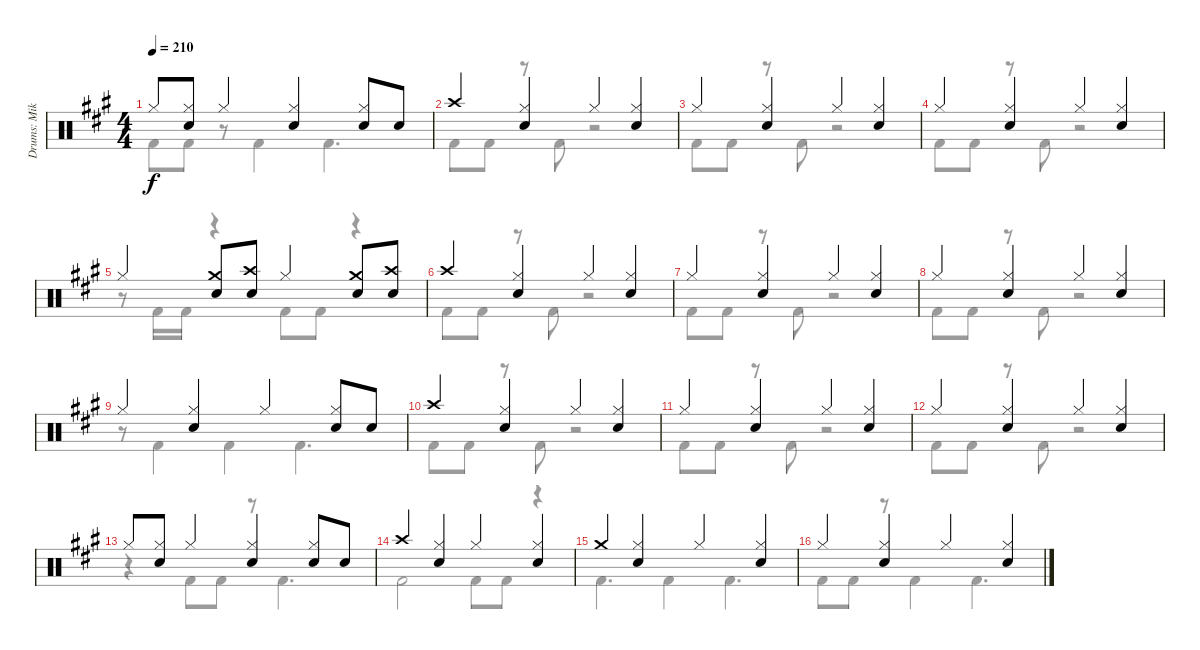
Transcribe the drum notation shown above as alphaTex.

\track ("Drums: Mikkey" "Drums: Mik") {instrument percussion}
\staff {score}
\articulation defaults
\voice
\ts (4 4)
\tempo 210
\clef neutral
\ks a "Hi-Hat (closed)".8{dy f}
("Hi-Hat (closed)" "Snare (hit) 2").8 "Hi-Hat (closed)".4 ("Hi-Hat (closed)" "Snare (hit) 2").4 ("Hi-Hat (closed)" "Snare (hit) 2").8 "Snare (hit) 2".8 |
"Crash high (hit)".4 ("Hi-Hat (closed)" "Snare (hit) 2").4 "Hi-Hat (closed)".4 ("Hi-Hat (closed)" "Snare (hit) 2").4 |
"Hi-Hat (closed)".4 ("Hi-Hat (closed)" "Snare (hit) 2").4 "Hi-Hat (closed)".4 ("Hi-Hat (closed)" "Snare (hit) 2").4 |
"Hi-Hat (closed)".4 ("Hi-Hat (closed)" "Snare (hit) 2").4 "Hi-Hat (closed)".4 ("Hi-Hat (closed)" "Snare (hit) 2").4 |
"Hi-Hat (closed)".4 ("Crash medium (hit)" "Snare (hit) 2").8 ("Crash high (hit)" "Snare (hit) 2").8 "Hi-Hat (closed)".4 ("Crash medium (hit)" "Snare (hit) 2").8 ("Crash high (hit)" "Snare (hit) 2").8 |
"Crash high (hit)".4 ("Hi-Hat (closed)" "Snare (hit) 2").4 "Hi-Hat (closed)".4 ("Hi-Hat (closed)" "Snare (hit) 2").4 |
"Hi-Hat (closed)".4 ("Hi-Hat (closed)" "Snare (hit) 2").4 "Hi-Hat (closed)".4 ("Hi-Hat (closed)" "Snare (hit) 2").4 |
"Hi-Hat (closed)".4 ("Hi-Hat (closed)" "Snare (hit) 2").4 "Hi-Hat (closed)".4 ("Hi-Hat (closed)" "Snare (hit) 2").4 |
"Hi-Hat (closed)".4 ("Hi-Hat (closed)" "Snare (hit) 2").4 "Hi-Hat (closed)".4 ("Hi-Hat (closed)" "Snare (hit) 2").8 "Snare (hit) 2".8 |
"Crash high (hit)".4 ("Hi-Hat (closed)" "Snare (hit) 2").4 "Hi-Hat (closed)".4 ("Hi-Hat (closed)" "Snare (hit) 2").4 |
"Hi-Hat (closed)".4 ("Hi-Hat (closed)" "Snare (hit) 2").4 "Hi-Hat (closed)".4 ("Hi-Hat (closed)" "Snare (hit) 2").4 |
"Hi-Hat (closed)".4 ("Hi-Hat (closed)" "Snare (hit) 2").4 "Hi-Hat (closed)".4 ("Hi-Hat (closed)" "Snare (hit) 2").4 |
"Hi-Hat (closed)".8 ("Hi-Hat (closed)" "Snare (hit) 2").8 "Hi-Hat (closed)".4 ("Hi-Hat (closed)" "Snare (hit) 2").4 ("Hi-Hat (closed)" "Snare (hit) 2").8 "Snare (hit) 2".8 |
"Crash high (hit)".4 ("Hi-Hat (closed)" "Snare (hit) 2").4 "Hi-Hat (closed)".4 ("Hi-Hat (closed)" "Snare (hit) 2").4 |
"Crash medium (hit)".4 ("Hi-Hat (closed)" "Snare (hit) 2").4 "Hi-Hat (closed)".4 ("Hi-Hat (closed)" "Snare (hit) 2").4 |
"Hi-Hat (closed)".4 ("Hi-Hat (closed)" "Snare (hit) 2").4 "Hi-Hat (closed)".4 ("Hi-Hat (closed)" "Snare (hit) 2").4
\voice
\clef neutral
\ottava regular
\simile none
\ks a "Kick (hit) 2".8{dy f} "Kick (hit) 2".8
r.8 "Kick (hit) 2".4 "Kick (hit) 2".4{d} |
"Kick (hit) 2".8 "Kick (hit) 2".8 r.8 "Kick (hit) 2".8{beam merge} r.2 |
"Kick (hit) 2".8 "Kick (hit) 2".8 r.8 "Kick (hit) 2".8{beam merge} r.2 |
"Kick (hit) 2".8 "Kick (hit) 2".8 r.8 "Kick (hit) 2".8{beam merge} r.2 |
r.8 "Kick (hit) 2".16 "Kick (hit) 2".16 r.4 "Kick (hit) 2".8 "Kick (hit) 2".8 r.4 |
"Kick (hit) 2".8 "Kick (hit) 2".8 r.8 "Kick (hit) 2".8{beam merge} r.2 |
"Kick (hit) 2".8 "Kick (hit) 2".8 r.8 "Kick (hit) 2".8{beam merge} r.2 |
"Kick (hit) 2".8 "Kick (hit) 2".8 r.8 "Kick (hit) 2".8{beam merge} r.2 |
r.8 "Kick (hit) 2".4 "Kick (hit) 2".4 "Kick (hit) 2".4{d} |
"Kick (hit) 2".8 "Kick (hit) 2".8 r.8 "Kick (hit) 2".8{beam merge} r.2 |
"Kick (hit) 2".8 "Kick (hit) 2".8 r.8 "Kick (hit) 2".8{beam merge} r.2 |
"Kick (hit) 2".8 "Kick (hit) 2".8 r.8 "Kick (hit) 2".8{beam merge} r.2 |
r.4 "Kick (hit) 2".8 "Kick (hit) 2".8 r.8 "Kick (hit) 2".4{d} |
"Kick (hit) 2".2 "Kick (hit) 2".8 "Kick (hit) 2".8 r.4 |
"Kick (hit) 2".4{d} "Kick (hit) 2".4 "Kick (hit) 2".4{d} |
"Kick (hit) 2".8 "Kick (hit) 2".8 r.8 "Kick (hit) 2".4{beam merge} "Kick (hit) 2".4{d}
